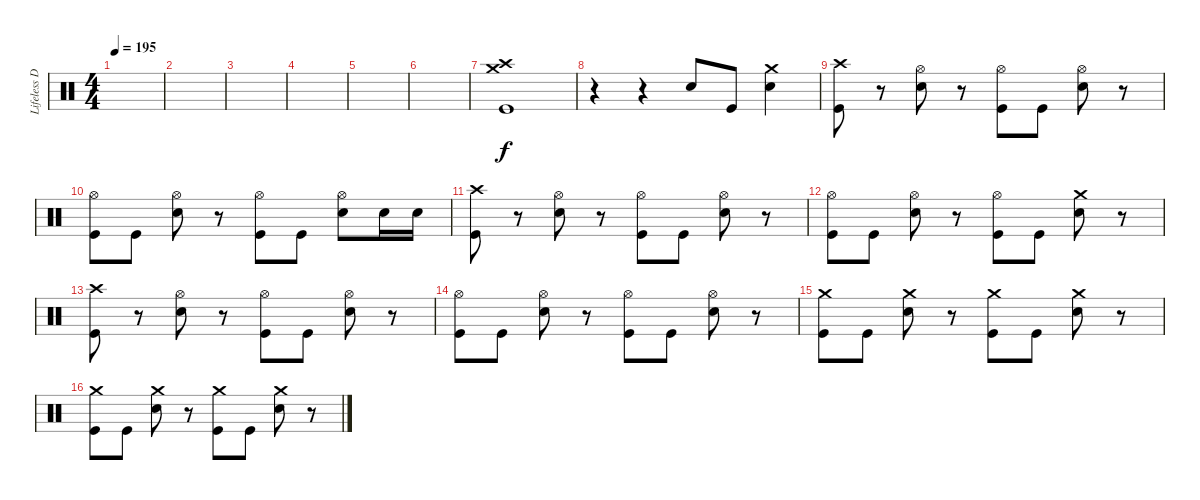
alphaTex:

\track ("Lifeless Drums" "Lifeless D") {instrument percussion}
\staff {score}
\articulation defaults
\ts (4 4)
\tempo 195
\clef neutral
\ks c
|
|
|
|
|
|
("Crash high (hit)" "Crash medium (hit)" "Kick (hit)").1 |
r.4 r.4 "Electric Snare (hit)".8 "Kick (hit)".8 ("Crash medium (hit)" "Electric Snare (hit)").4 |
("Crash high (hit)" "Kick (hit)").8 r.8 ("Hi-Hat (open)" "Electric Snare (hit)").8 r.8 ("Hi-Hat (open)" "Kick (hit)").8 "Kick (hit)".8 ("Hi-Hat (open)" "Electric Snare (hit)").8 r.8 |
("Hi-Hat (open)" "Kick (hit)").8 "Kick (hit)".8 ("Hi-Hat (open)" "Electric Snare (hit)").8 r.8 ("Hi-Hat (open)" "Kick (hit)").8 "Kick (hit)".8 ("Hi-Hat (open)" "Electric Snare (hit)").8 "Electric Snare (hit)".16 "Electric Snare (hit)".16 |
("Crash high (hit)" "Kick (hit)").8 r.8 ("Hi-Hat (open)" "Electric Snare (hit)").8 r.8 ("Hi-Hat (open)" "Kick (hit)").8 "Kick (hit)".8 ("Hi-Hat (open)" "Electric Snare (hit)").8 r.8 |
("Hi-Hat (open)" "Kick (hit)").8 "Kick (hit)".8 ("Hi-Hat (open)" "Electric Snare (hit)").8 r.8 ("Hi-Hat (open)" "Kick (hit)").8 "Kick (hit)".8 ("Crash medium (hit)" "Electric Snare (hit)").8 r.8 |
("Crash high (hit)" "Kick (hit)").8 r.8 ("Hi-Hat (open)" "Electric Snare (hit)").8 r.8 ("Hi-Hat (open)" "Kick (hit)").8 "Kick (hit)".8 ("Hi-Hat (open)" "Electric Snare (hit)").8 r.8 |
("Hi-Hat (open)" "Kick (hit)").8 "Kick (hit)".8 ("Hi-Hat (open)" "Electric Snare (hit)").8 r.8 ("Hi-Hat (open)" "Kick (hit)").8 "Kick (hit)".8 ("Hi-Hat (open)" "Electric Snare (hit)").8 r.8 |
("Crash medium (hit)" "Kick (hit)").8 "Kick (hit)".8 ("Crash medium (hit)" "Electric Snare (hit)").8 r.8 ("Crash medium (hit)" "Kick (hit)").8 "Kick (hit)".8 ("Crash medium (hit)" "Electric Snare (hit)").8 r.8 |
("Crash medium (hit)" "Kick (hit)").8 "Kick (hit)".8 ("Crash medium (hit)" "Electric Snare (hit)").8 r.8 ("Crash medium (hit)" "Kick (hit)").8 "Kick (hit)".8 ("Crash medium (hit)" "Electric Snare (hit)").8 r.8
